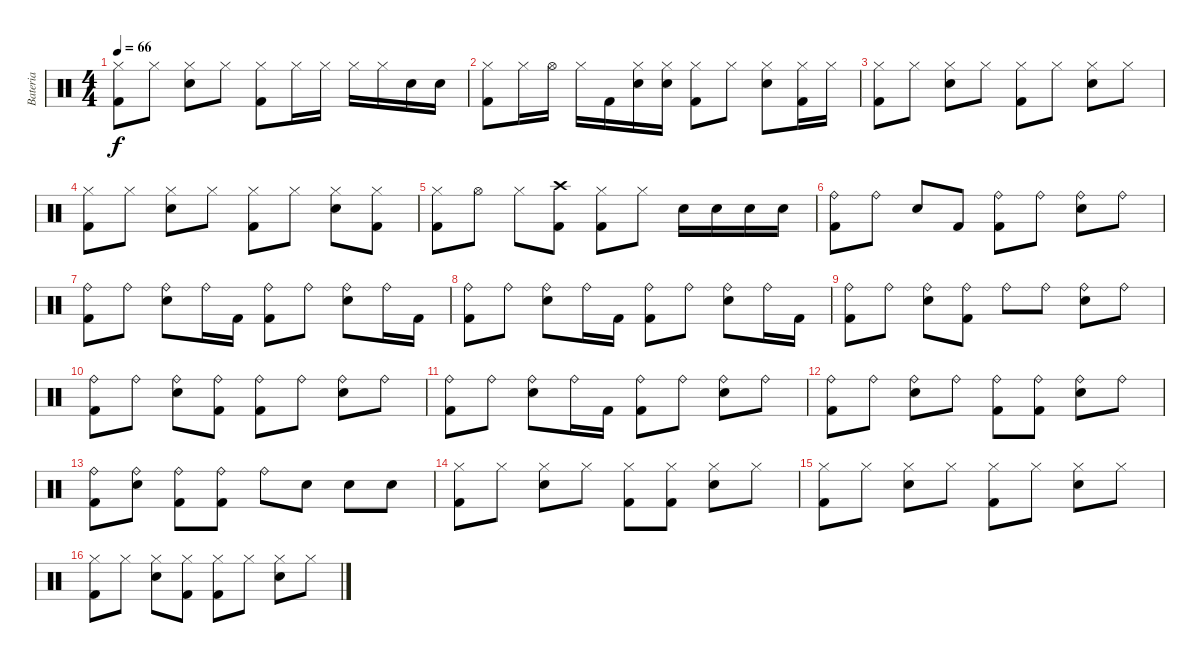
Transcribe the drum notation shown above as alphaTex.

\track ("Bateria" "Bateria") {instrument percussion}
\staff {score}
\articulation defaults
\ts (4 4)
\tempo 66
\clef neutral
\ks c
("Hi-Hat (closed)" "Kick (hit) 2").8{dy f} "Hi-Hat (closed)".8 ("Hi-Hat (closed)" "Snare (hit) 2").8 "Hi-Hat (closed)".8 ("Hi-Hat (closed)" "Kick (hit) 2").8 "Hi-Hat (closed)".16 "Hi-Hat (closed)".16 "Hi-Hat (closed)".16 "Hi-Hat (closed)".16 "Snare (hit) 2".16 "Snare (hit) 2".16 |
("Hi-Hat (closed)" "Kick (hit) 2").8 "Hi-Hat (closed)".16 "Hi-Hat (open)".16 "Hi-Hat (closed)".16 "Kick (hit) 2".16 ("Hi-Hat (closed)" "Snare (hit) 2").16 ("Hi-Hat (closed)" "Snare (hit) 2").16 ("Hi-Hat (closed)" "Kick (hit) 2").8 "Hi-Hat (closed)".8 ("Hi-Hat (closed)" "Snare (hit) 2").8 ("Hi-Hat (closed)" "Kick (hit) 2").16 "Hi-Hat (closed)".16 |
("Hi-Hat (closed)" "Kick (hit) 2").8 "Hi-Hat (closed)".8 ("Hi-Hat (closed)" "Snare (hit) 2").8 "Hi-Hat (closed)".8 ("Hi-Hat (closed)" "Kick (hit) 2").8 "Hi-Hat (closed)".8 ("Hi-Hat (closed)" "Snare (hit) 2").8 "Hi-Hat (closed)".8 |
("Hi-Hat (closed)" "Kick (hit) 2").8 "Hi-Hat (closed)".8 ("Hi-Hat (closed)" "Snare (hit) 2").8 "Hi-Hat (closed)".8 ("Hi-Hat (closed)" "Kick (hit) 2").8 "Hi-Hat (closed)".8 ("Hi-Hat (closed)" "Snare (hit) 2").8 ("Hi-Hat (closed)" "Kick (hit) 2").8 |
("Hi-Hat (closed)" "Kick (hit) 2").8 "Hi-Hat (open)".8 "Hi-Hat (closed)".8 ("Crash high (hit)" "Kick (hit) 2").8 ("Hi-Hat (closed)" "Kick (hit) 2").8 "Hi-Hat (closed)".8 "Snare (hit) 2".16 "Snare (hit) 2".16 "Snare (hit) 2".16 "Snare (hit) 2".16 |
("Ride (bell)" "Kick (hit) 2").8 "Ride (bell)".8 "Snare (hit) 2".8 "Kick (hit) 2".8 ("Ride (bell)" "Kick (hit) 2").8 "Ride (bell)".8 ("Ride (bell)" "Snare (hit) 2").8 "Ride (bell)".8 |
("Ride (bell)" "Kick (hit) 2").8 "Ride (bell)".8 ("Ride (bell)" "Snare (hit) 2").8 "Ride (bell)".16 "Kick (hit) 2".16 ("Ride (bell)" "Kick (hit) 2").8 "Ride (bell)".8 ("Ride (bell)" "Snare (hit) 2").8 "Ride (bell)".16 "Kick (hit) 2".16 |
("Ride (bell)" "Kick (hit) 2").8 "Ride (bell)".8 ("Ride (bell)" "Snare (hit) 2").8 "Ride (bell)".16 "Kick (hit) 2".16 ("Ride (bell)" "Kick (hit) 2").8 "Ride (bell)".8 ("Ride (bell)" "Snare (hit) 2").8 "Ride (bell)".16 "Kick (hit) 2".16 |
("Ride (bell)" "Kick (hit) 2").8 "Ride (bell)".8 ("Ride (bell)" "Snare (hit) 2").8 ("Ride (bell)" "Kick (hit) 2").8 "Ride (bell)".8 "Ride (bell)".8 ("Ride (bell)" "Snare (hit) 2").8 "Ride (bell)".8 |
("Ride (bell)" "Kick (hit) 2").8 "Ride (bell)".8 ("Ride (bell)" "Snare (hit) 2").8 ("Ride (bell)" "Kick (hit) 2").8 ("Ride (bell)" "Kick (hit) 2").8 "Ride (bell)".8 ("Ride (bell)" "Snare (hit) 2").8 "Ride (bell)".8 |
("Ride (bell)" "Kick (hit) 2").8 "Ride (bell)".8 ("Ride (bell)" "Snare (hit) 2").8 "Ride (bell)".16 "Kick (hit) 2".16 ("Ride (bell)" "Kick (hit) 2").8 "Ride (bell)".8 ("Ride (bell)" "Snare (hit) 2").8 "Ride (bell)".8 |
("Ride (bell)" "Kick (hit) 2").8 "Ride (bell)".8 ("Ride (bell)" "Snare (hit) 2").8 "Ride (bell)".8 ("Ride (bell)" "Kick (hit) 2").8 ("Ride (bell)" "Kick (hit) 2").8 ("Ride (bell)" "Snare (hit) 2").8 "Ride (bell)".8 |
("Ride (bell)" "Kick (hit) 2").8 ("Ride (bell)" "Snare (hit) 2").8 ("Ride (bell)" "Kick (hit) 2").8 ("Ride (bell)" "Kick (hit) 2").8 "Ride (bell)".8 "Snare (hit) 2".8 "Snare (hit) 2".8 "Snare (hit) 2".8 |
("Hi-Hat (closed)" "Kick (hit) 2").8 "Hi-Hat (closed)".8 ("Hi-Hat (closed)" "Snare (hit) 2").8 "Hi-Hat (closed)".8 ("Hi-Hat (closed)" "Kick (hit) 2").8 ("Hi-Hat (closed)" "Kick (hit) 2").8 ("Hi-Hat (closed)" "Snare (hit) 2").8 "Hi-Hat (closed)".8 |
("Hi-Hat (closed)" "Kick (hit) 2").8 "Hi-Hat (closed)".8 ("Hi-Hat (closed)" "Snare (hit) 2").8 "Hi-Hat (closed)".8 ("Hi-Hat (closed)" "Kick (hit) 2").8 "Hi-Hat (closed)".8 ("Hi-Hat (closed)" "Snare (hit) 2").8 "Hi-Hat (closed)".8 |
("Hi-Hat (closed)" "Kick (hit) 2").8 "Hi-Hat (closed)".8 ("Hi-Hat (closed)" "Snare (hit) 2").8 ("Hi-Hat (closed)" "Kick (hit) 2").8 ("Hi-Hat (closed)" "Kick (hit) 2").8 "Hi-Hat (closed)".8 ("Hi-Hat (closed)" "Snare (hit) 2").8 "Hi-Hat (closed)".8
